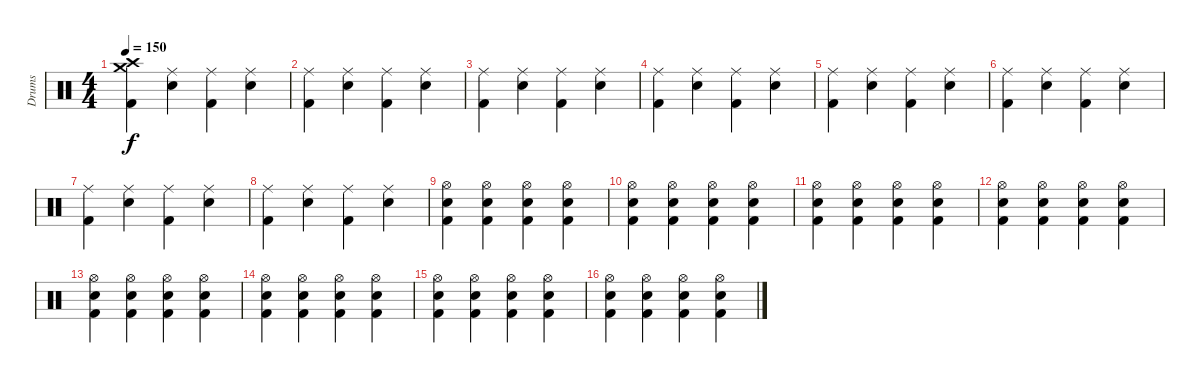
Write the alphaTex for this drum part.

\track ("Drums" "Drums") {instrument percussion}
\staff {score}
\articulation defaults
\ts (4 4)
\tempo 150
\clef neutral
\ks c
("Crash high (hit)" "Crash medium (hit)" "Kick (hit) 2").4{dy f} ("Ride (middle)" "Snare (hit) 2").4 ("Ride (middle)" "Kick (hit) 2").4 ("Ride (middle)" "Snare (hit) 2").4 |
("Ride (middle)" "Kick (hit) 2").4 ("Ride (middle)" "Snare (hit) 2").4 ("Ride (middle)" "Kick (hit) 2").4 ("Ride (middle)" "Snare (hit) 2").4 |
("Ride (middle)" "Kick (hit) 2").4 ("Ride (middle)" "Snare (hit) 2").4 ("Ride (middle)" "Kick (hit) 2").4 ("Ride (middle)" "Snare (hit) 2").4 |
("Ride (middle)" "Kick (hit) 2").4 ("Ride (middle)" "Snare (hit) 2").4 ("Ride (middle)" "Kick (hit) 2").4 ("Ride (middle)" "Snare (hit) 2").4 |
("Ride (middle)" "Kick (hit) 2").4 ("Ride (middle)" "Snare (hit) 2").4 ("Ride (middle)" "Kick (hit) 2").4 ("Ride (middle)" "Snare (hit) 2").4 |
("Ride (middle)" "Kick (hit) 2").4 ("Ride (middle)" "Snare (hit) 2").4 ("Ride (middle)" "Kick (hit) 2").4 ("Ride (middle)" "Snare (hit) 2").4 |
("Ride (middle)" "Kick (hit) 2").4 ("Ride (middle)" "Snare (hit) 2").4 ("Ride (middle)" "Kick (hit) 2").4 ("Ride (middle)" "Snare (hit) 2").4 |
("Ride (middle)" "Kick (hit) 2").4 ("Ride (middle)" "Snare (hit) 2").4 ("Ride (middle)" "Kick (hit) 2").4 ("Ride (middle)" "Snare (hit) 2").4 |
("Hi-Hat (open)" "Snare (hit) 2" "Kick (hit) 2").4 ("Hi-Hat (open)" "Snare (hit) 2" "Kick (hit) 2").4 ("Hi-Hat (open)" "Snare (hit) 2" "Kick (hit) 2").4 ("Hi-Hat (open)" "Snare (hit) 2" "Kick (hit) 2").4 |
("Hi-Hat (open)" "Snare (hit) 2" "Kick (hit) 2").4 ("Hi-Hat (open)" "Snare (hit) 2" "Kick (hit) 2").4 ("Hi-Hat (open)" "Snare (hit) 2" "Kick (hit) 2").4 ("Hi-Hat (open)" "Snare (hit) 2" "Kick (hit) 2").4 |
("Hi-Hat (open)" "Snare (hit) 2" "Kick (hit) 2").4 ("Hi-Hat (open)" "Snare (hit) 2" "Kick (hit) 2").4 ("Hi-Hat (open)" "Snare (hit) 2" "Kick (hit) 2").4 ("Hi-Hat (open)" "Snare (hit) 2" "Kick (hit) 2").4 |
("Hi-Hat (open)" "Snare (hit) 2" "Kick (hit) 2").4 ("Hi-Hat (open)" "Snare (hit) 2" "Kick (hit) 2").4 ("Hi-Hat (open)" "Snare (hit) 2" "Kick (hit) 2").4 ("Hi-Hat (open)" "Snare (hit) 2" "Kick (hit) 2").4 |
("Hi-Hat (open)" "Snare (hit) 2" "Kick (hit) 2").4 ("Hi-Hat (open)" "Snare (hit) 2" "Kick (hit) 2").4 ("Hi-Hat (open)" "Snare (hit) 2" "Kick (hit) 2").4 ("Hi-Hat (open)" "Snare (hit) 2" "Kick (hit) 2").4 |
("Hi-Hat (open)" "Snare (hit) 2" "Kick (hit) 2").4 ("Hi-Hat (open)" "Snare (hit) 2" "Kick (hit) 2").4 ("Hi-Hat (open)" "Snare (hit) 2" "Kick (hit) 2").4 ("Hi-Hat (open)" "Snare (hit) 2" "Kick (hit) 2").4 |
("Hi-Hat (open)" "Snare (hit) 2" "Kick (hit) 2").4 ("Hi-Hat (open)" "Snare (hit) 2" "Kick (hit) 2").4 ("Hi-Hat (open)" "Snare (hit) 2" "Kick (hit) 2").4 ("Hi-Hat (open)" "Snare (hit) 2" "Kick (hit) 2").4 |
("Hi-Hat (open)" "Snare (hit) 2" "Kick (hit) 2").4 ("Hi-Hat (open)" "Snare (hit) 2" "Kick (hit) 2").4 ("Hi-Hat (open)" "Snare (hit) 2" "Kick (hit) 2").4 ("Hi-Hat (open)" "Snare (hit) 2" "Kick (hit) 2").4
